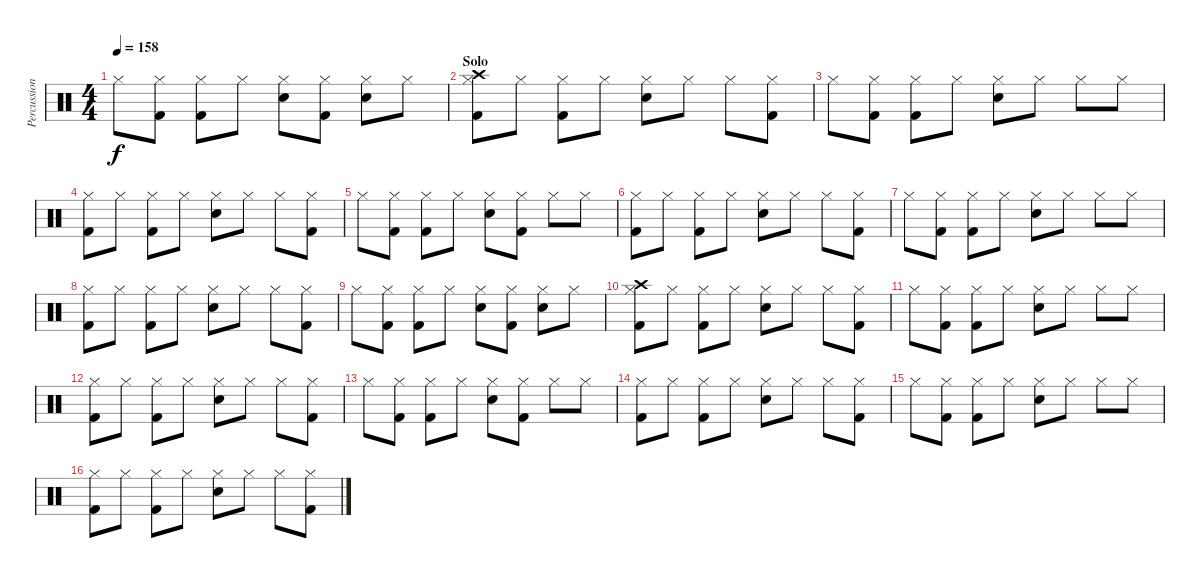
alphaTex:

\track ("Percussion" "Percussion") {instrument percussion}
\staff {score}
\articulation defaults
\ts (4 4)
\tempo 158
\clef neutral
\ks c "Hi-Hat (closed)".8{dy f}
("Hi-Hat (closed)" "Kick (hit) 2").8 ("Hi-Hat (closed)" "Kick (hit) 2").8 "Hi-Hat (closed)".8 ("Hi-Hat (closed)" "Electric Snare (hit)").8 ("Hi-Hat (closed)" "Kick (hit) 2").8 ("Hi-Hat (closed)" "Electric Snare (hit)").8 "Hi-Hat (closed)".8 |
\section ("" "Solo")
("Hi-Hat (closed)" "Kick (hit) 2" "Crash high (hit)").8 "Hi-Hat (closed)".8 ("Hi-Hat (closed)" "Kick (hit) 2").8 "Hi-Hat (closed)".8 ("Hi-Hat (closed)" "Electric Snare (hit)").8 "Hi-Hat (closed)".8 "Hi-Hat (closed)".8 ("Hi-Hat (closed)" "Kick (hit) 2").8 |
"Hi-Hat (closed)".8 ("Hi-Hat (closed)" "Kick (hit) 2").8 ("Hi-Hat (closed)" "Kick (hit) 2").8 "Hi-Hat (closed)".8 ("Hi-Hat (closed)" "Electric Snare (hit)").8 "Hi-Hat (closed)".8 "Hi-Hat (closed)".8 "Hi-Hat (closed)".8 |
("Hi-Hat (closed)" "Kick (hit) 2").8 "Hi-Hat (closed)".8 ("Hi-Hat (closed)" "Kick (hit) 2").8 "Hi-Hat (closed)".8 ("Hi-Hat (closed)" "Electric Snare (hit)").8 "Hi-Hat (closed)".8 "Hi-Hat (closed)".8 ("Hi-Hat (closed)" "Kick (hit) 2").8 |
"Hi-Hat (closed)".8 ("Hi-Hat (closed)" "Kick (hit) 2").8 ("Hi-Hat (closed)" "Kick (hit) 2").8 "Hi-Hat (closed)".8 ("Hi-Hat (closed)" "Electric Snare (hit)").8 ("Hi-Hat (closed)" "Kick (hit) 2").8 "Hi-Hat (closed)".8 "Hi-Hat (closed)".8 |
("Hi-Hat (closed)" "Kick (hit) 2").8 "Hi-Hat (closed)".8 ("Hi-Hat (closed)" "Kick (hit) 2").8 "Hi-Hat (closed)".8 ("Hi-Hat (closed)" "Electric Snare (hit)").8 "Hi-Hat (closed)".8 "Hi-Hat (closed)".8 ("Hi-Hat (closed)" "Kick (hit) 2").8 |
"Hi-Hat (closed)".8 ("Hi-Hat (closed)" "Kick (hit) 2").8 ("Hi-Hat (closed)" "Kick (hit) 2").8 "Hi-Hat (closed)".8 ("Hi-Hat (closed)" "Electric Snare (hit)").8 "Hi-Hat (closed)".8 "Hi-Hat (closed)".8 "Hi-Hat (closed)".8 |
("Hi-Hat (closed)" "Kick (hit) 2").8 "Hi-Hat (closed)".8 ("Hi-Hat (closed)" "Kick (hit) 2").8 "Hi-Hat (closed)".8 ("Hi-Hat (closed)" "Snare (hit) 2").8 "Hi-Hat (closed)".8 "Hi-Hat (closed)".8 ("Hi-Hat (closed)" "Kick (hit) 2").8 |
"Hi-Hat (closed)".8 ("Hi-Hat (closed)" "Kick (hit) 2").8 ("Hi-Hat (closed)" "Kick (hit) 2").8 "Hi-Hat (closed)".8 ("Hi-Hat (closed)" "Electric Snare (hit)").8 ("Hi-Hat (closed)" "Kick (hit) 2").8 ("Hi-Hat (closed)" "Electric Snare (hit)").8 "Hi-Hat (closed)".8 |
("Hi-Hat (closed)" "Kick (hit) 2" "Crash high (hit)").8 "Hi-Hat (closed)".8 ("Hi-Hat (closed)" "Kick (hit) 2").8 "Hi-Hat (closed)".8 ("Hi-Hat (closed)" "Electric Snare (hit)").8 "Hi-Hat (closed)".8 "Hi-Hat (closed)".8 ("Hi-Hat (closed)" "Kick (hit) 2").8 |
"Hi-Hat (closed)".8 ("Hi-Hat (closed)" "Kick (hit) 2").8 ("Hi-Hat (closed)" "Kick (hit) 2").8 "Hi-Hat (closed)".8 ("Hi-Hat (closed)" "Electric Snare (hit)").8 "Hi-Hat (closed)".8 "Hi-Hat (closed)".8 "Hi-Hat (closed)".8 |
("Hi-Hat (closed)" "Kick (hit) 2").8 "Hi-Hat (closed)".8 ("Hi-Hat (closed)" "Kick (hit) 2").8 "Hi-Hat (closed)".8 ("Hi-Hat (closed)" "Electric Snare (hit)").8 "Hi-Hat (closed)".8 "Hi-Hat (closed)".8 ("Hi-Hat (closed)" "Kick (hit) 2").8 |
"Hi-Hat (closed)".8 ("Hi-Hat (closed)" "Kick (hit) 2").8 ("Hi-Hat (closed)" "Kick (hit) 2").8 "Hi-Hat (closed)".8 ("Hi-Hat (closed)" "Electric Snare (hit)").8 ("Hi-Hat (closed)" "Kick (hit) 2").8 "Hi-Hat (closed)".8 "Hi-Hat (closed)".8 |
("Hi-Hat (closed)" "Kick (hit) 2").8 "Hi-Hat (closed)".8 ("Hi-Hat (closed)" "Kick (hit) 2").8 "Hi-Hat (closed)".8 ("Hi-Hat (closed)" "Electric Snare (hit)").8 "Hi-Hat (closed)".8 "Hi-Hat (closed)".8 ("Hi-Hat (closed)" "Kick (hit) 2").8 |
"Hi-Hat (closed)".8 ("Hi-Hat (closed)" "Kick (hit) 2").8 ("Hi-Hat (closed)" "Kick (hit) 2").8 "Hi-Hat (closed)".8 ("Hi-Hat (closed)" "Electric Snare (hit)").8 "Hi-Hat (closed)".8 "Hi-Hat (closed)".8 "Hi-Hat (closed)".8 |
("Hi-Hat (closed)" "Kick (hit) 2").8 "Hi-Hat (closed)".8 ("Hi-Hat (closed)" "Kick (hit) 2").8 "Hi-Hat (closed)".8 ("Hi-Hat (closed)" "Snare (hit) 2").8 "Hi-Hat (closed)".8 "Hi-Hat (closed)".8 ("Hi-Hat (closed)" "Kick (hit) 2").8
